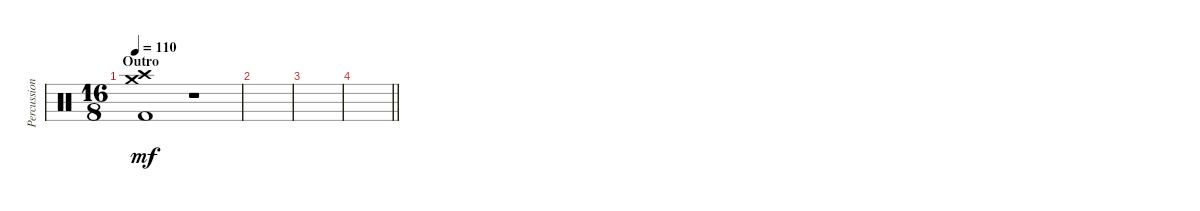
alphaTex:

\track ("Percussion" "Percussion") {instrument percussion}
\staff {score}
\articulation defaults
\ts (16 8)
\section ("" "Outro")
\tempo 110
\clef neutral
\ks c
("Crash high (hit)" "Crash medium (hit)" "Kick (hit) 2").1{dy mf} r.1 |
|
|
\barLineRight lightlight
